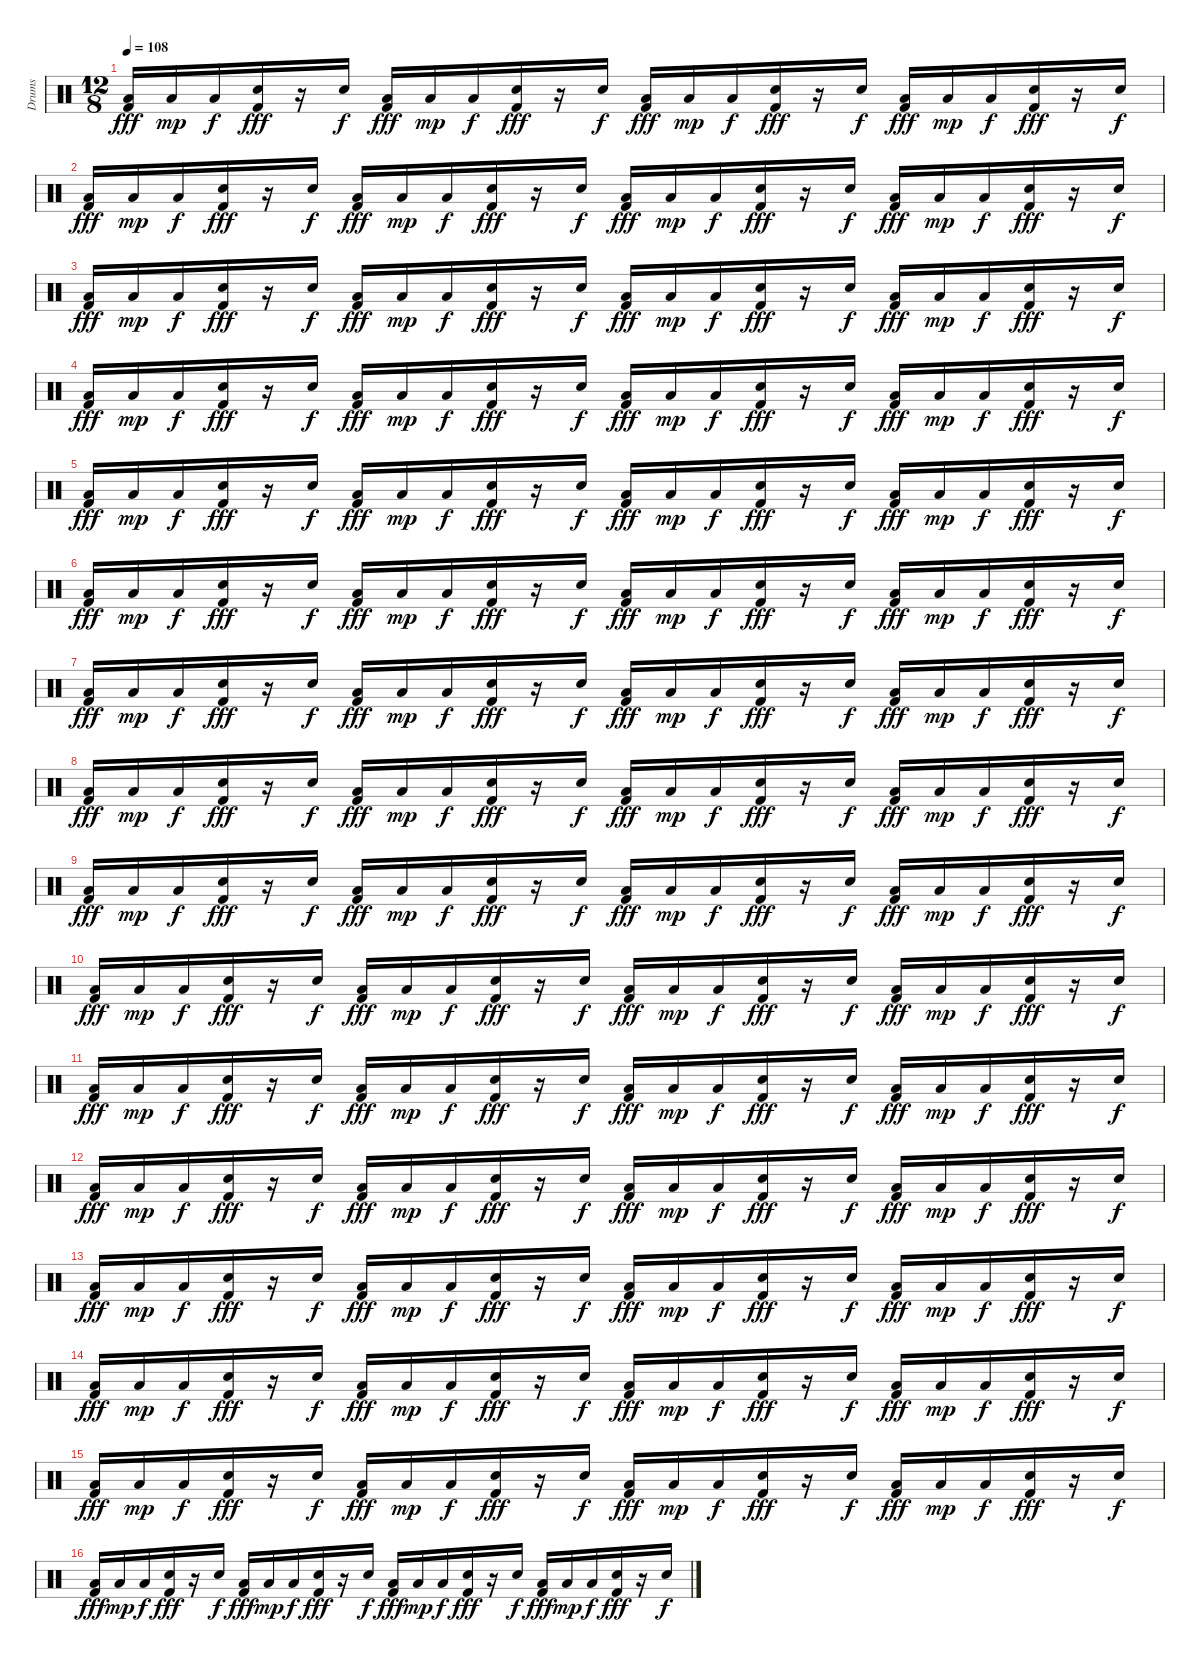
\track ("Drums" "Drums") {instrument percussion}
\staff {score}
\articulation defaults
\ts (12 8)
\tempo 108
\clef neutral
\ks c
("Low Floor Tom (hit)" "Kick (hit) 2").16{dy fff} "Low Floor Tom (hit)".16{dy mp} "Low Floor Tom (hit)".16{dy f} ("Snare (hit) 2" "Kick (hit) 2").16{dy fff} r.16 "Snare (hit) 2".16{dy f} ("Low Floor Tom (hit)" "Kick (hit) 2").16{dy fff} "Low Floor Tom (hit)".16{dy mp} "Low Floor Tom (hit)".16{dy f} ("Snare (hit) 2" "Kick (hit) 2").16{dy fff} r.16 "Snare (hit) 2".16{dy f} ("Low Floor Tom (hit)" "Kick (hit) 2").16{dy fff} "Low Floor Tom (hit)".16{dy mp} "Low Floor Tom (hit)".16{dy f} ("Snare (hit) 2" "Kick (hit) 2").16{dy fff} r.16 "Snare (hit) 2".16{dy f} ("Low Floor Tom (hit)" "Kick (hit) 2").16{dy fff} "Low Floor Tom (hit)".16{dy mp} "Low Floor Tom (hit)".16{dy f} ("Snare (hit) 2" "Kick (hit) 2").16{dy fff} r.16 "Snare (hit) 2".16{dy f} |
("Low Floor Tom (hit)" "Kick (hit) 2").16{dy fff} "Low Floor Tom (hit)".16{dy mp} "Low Floor Tom (hit)".16{dy f} ("Snare (hit) 2" "Kick (hit) 2").16{dy fff} r.16 "Snare (hit) 2".16{dy f} ("Low Floor Tom (hit)" "Kick (hit) 2").16{dy fff} "Low Floor Tom (hit)".16{dy mp} "Low Floor Tom (hit)".16{dy f} ("Snare (hit) 2" "Kick (hit) 2").16{dy fff} r.16 "Snare (hit) 2".16{dy f} ("Low Floor Tom (hit)" "Kick (hit) 2").16{dy fff} "Low Floor Tom (hit)".16{dy mp} "Low Floor Tom (hit)".16{dy f} ("Snare (hit) 2" "Kick (hit) 2").16{dy fff} r.16 "Snare (hit) 2".16{dy f} ("Low Floor Tom (hit)" "Kick (hit) 2").16{dy fff} "Low Floor Tom (hit)".16{dy mp} "Low Floor Tom (hit)".16{dy f} ("Snare (hit) 2" "Kick (hit) 2").16{dy fff} r.16 "Snare (hit) 2".16{dy f} |
("Low Floor Tom (hit)" "Kick (hit) 2").16{dy fff} "Low Floor Tom (hit)".16{dy mp} "Low Floor Tom (hit)".16{dy f} ("Snare (hit) 2" "Kick (hit) 2").16{dy fff} r.16 "Snare (hit) 2".16{dy f} ("Low Floor Tom (hit)" "Kick (hit) 2").16{dy fff} "Low Floor Tom (hit)".16{dy mp} "Low Floor Tom (hit)".16{dy f} ("Snare (hit) 2" "Kick (hit) 2").16{dy fff} r.16 "Snare (hit) 2".16{dy f} ("Low Floor Tom (hit)" "Kick (hit) 2").16{dy fff} "Low Floor Tom (hit)".16{dy mp} "Low Floor Tom (hit)".16{dy f} ("Snare (hit) 2" "Kick (hit) 2").16{dy fff} r.16 "Snare (hit) 2".16{dy f} ("Low Floor Tom (hit)" "Kick (hit) 2").16{dy fff} "Low Floor Tom (hit)".16{dy mp} "Low Floor Tom (hit)".16{dy f} ("Snare (hit) 2" "Kick (hit) 2").16{dy fff} r.16 "Snare (hit) 2".16{dy f} |
("Low Floor Tom (hit)" "Kick (hit) 2").16{dy fff} "Low Floor Tom (hit)".16{dy mp} "Low Floor Tom (hit)".16{dy f} ("Snare (hit) 2" "Kick (hit) 2").16{dy fff} r.16 "Snare (hit) 2".16{dy f} ("Low Floor Tom (hit)" "Kick (hit) 2").16{dy fff} "Low Floor Tom (hit)".16{dy mp} "Low Floor Tom (hit)".16{dy f} ("Snare (hit) 2" "Kick (hit) 2").16{dy fff} r.16 "Snare (hit) 2".16{dy f} ("Low Floor Tom (hit)" "Kick (hit) 2").16{dy fff} "Low Floor Tom (hit)".16{dy mp} "Low Floor Tom (hit)".16{dy f} ("Snare (hit) 2" "Kick (hit) 2").16{dy fff} r.16 "Snare (hit) 2".16{dy f} ("Low Floor Tom (hit)" "Kick (hit) 2").16{dy fff} "Low Floor Tom (hit)".16{dy mp} "Low Floor Tom (hit)".16{dy f} ("Snare (hit) 2" "Kick (hit) 2").16{dy fff} r.16 "Snare (hit) 2".16{dy f} |
("Low Floor Tom (hit)" "Kick (hit) 2").16{dy fff} "Low Floor Tom (hit)".16{dy mp} "Low Floor Tom (hit)".16{dy f} ("Snare (hit) 2" "Kick (hit) 2").16{dy fff} r.16 "Snare (hit) 2".16{dy f} ("Low Floor Tom (hit)" "Kick (hit) 2").16{dy fff} "Low Floor Tom (hit)".16{dy mp} "Low Floor Tom (hit)".16{dy f} ("Snare (hit) 2" "Kick (hit) 2").16{dy fff} r.16 "Snare (hit) 2".16{dy f} ("Low Floor Tom (hit)" "Kick (hit) 2").16{dy fff} "Low Floor Tom (hit)".16{dy mp} "Low Floor Tom (hit)".16{dy f} ("Snare (hit) 2" "Kick (hit) 2").16{dy fff} r.16 "Snare (hit) 2".16{dy f} ("Low Floor Tom (hit)" "Kick (hit) 2").16{dy fff} "Low Floor Tom (hit)".16{dy mp} "Low Floor Tom (hit)".16{dy f} ("Snare (hit) 2" "Kick (hit) 2").16{dy fff} r.16 "Snare (hit) 2".16{dy f} |
("Low Floor Tom (hit)" "Kick (hit) 2").16{dy fff} "Low Floor Tom (hit)".16{dy mp} "Low Floor Tom (hit)".16{dy f} ("Snare (hit) 2" "Kick (hit) 2").16{dy fff} r.16 "Snare (hit) 2".16{dy f} ("Low Floor Tom (hit)" "Kick (hit) 2").16{dy fff} "Low Floor Tom (hit)".16{dy mp} "Low Floor Tom (hit)".16{dy f} ("Snare (hit) 2" "Kick (hit) 2").16{dy fff} r.16 "Snare (hit) 2".16{dy f} ("Low Floor Tom (hit)" "Kick (hit) 2").16{dy fff} "Low Floor Tom (hit)".16{dy mp} "Low Floor Tom (hit)".16{dy f} ("Snare (hit) 2" "Kick (hit) 2").16{dy fff} r.16 "Snare (hit) 2".16{dy f} ("Low Floor Tom (hit)" "Kick (hit) 2").16{dy fff} "Low Floor Tom (hit)".16{dy mp} "Low Floor Tom (hit)".16{dy f} ("Snare (hit) 2" "Kick (hit) 2").16{dy fff} r.16 "Snare (hit) 2".16{dy f} |
("Low Floor Tom (hit)" "Kick (hit) 2").16{dy fff} "Low Floor Tom (hit)".16{dy mp} "Low Floor Tom (hit)".16{dy f} ("Snare (hit) 2" "Kick (hit) 2").16{dy fff} r.16 "Snare (hit) 2".16{dy f} ("Low Floor Tom (hit)" "Kick (hit) 2").16{dy fff} "Low Floor Tom (hit)".16{dy mp} "Low Floor Tom (hit)".16{dy f} ("Snare (hit) 2" "Kick (hit) 2").16{dy fff} r.16 "Snare (hit) 2".16{dy f} ("Low Floor Tom (hit)" "Kick (hit) 2").16{dy fff} "Low Floor Tom (hit)".16{dy mp} "Low Floor Tom (hit)".16{dy f} ("Snare (hit) 2" "Kick (hit) 2").16{dy fff} r.16 "Snare (hit) 2".16{dy f} ("Low Floor Tom (hit)" "Kick (hit) 2").16{dy fff} "Low Floor Tom (hit)".16{dy mp} "Low Floor Tom (hit)".16{dy f} ("Snare (hit) 2" "Kick (hit) 2").16{dy fff} r.16 "Snare (hit) 2".16{dy f} |
("Low Floor Tom (hit)" "Kick (hit) 2").16{dy fff} "Low Floor Tom (hit)".16{dy mp} "Low Floor Tom (hit)".16{dy f} ("Snare (hit) 2" "Kick (hit) 2").16{dy fff} r.16 "Snare (hit) 2".16{dy f} ("Low Floor Tom (hit)" "Kick (hit) 2").16{dy fff} "Low Floor Tom (hit)".16{dy mp} "Low Floor Tom (hit)".16{dy f} ("Snare (hit) 2" "Kick (hit) 2").16{dy fff} r.16 "Snare (hit) 2".16{dy f} ("Low Floor Tom (hit)" "Kick (hit) 2").16{dy fff} "Low Floor Tom (hit)".16{dy mp} "Low Floor Tom (hit)".16{dy f} ("Snare (hit) 2" "Kick (hit) 2").16{dy fff} r.16 "Snare (hit) 2".16{dy f} ("Low Floor Tom (hit)" "Kick (hit) 2").16{dy fff} "Low Floor Tom (hit)".16{dy mp} "Low Floor Tom (hit)".16{dy f} ("Snare (hit) 2" "Kick (hit) 2").16{dy fff} r.16 "Snare (hit) 2".16{dy f} |
("Low Floor Tom (hit)" "Kick (hit) 2").16{dy fff} "Low Floor Tom (hit)".16{dy mp} "Low Floor Tom (hit)".16{dy f} ("Snare (hit) 2" "Kick (hit) 2").16{dy fff} r.16 "Snare (hit) 2".16{dy f} ("Low Floor Tom (hit)" "Kick (hit) 2").16{dy fff} "Low Floor Tom (hit)".16{dy mp} "Low Floor Tom (hit)".16{dy f} ("Snare (hit) 2" "Kick (hit) 2").16{dy fff} r.16 "Snare (hit) 2".16{dy f} ("Low Floor Tom (hit)" "Kick (hit) 2").16{dy fff} "Low Floor Tom (hit)".16{dy mp} "Low Floor Tom (hit)".16{dy f} ("Snare (hit) 2" "Kick (hit) 2").16{dy fff} r.16 "Snare (hit) 2".16{dy f} ("Low Floor Tom (hit)" "Kick (hit) 2").16{dy fff} "Low Floor Tom (hit)".16{dy mp} "Low Floor Tom (hit)".16{dy f} ("Snare (hit) 2" "Kick (hit) 2").16{dy fff} r.16 "Snare (hit) 2".16{dy f} |
("Low Floor Tom (hit)" "Kick (hit) 2").16{dy fff} "Low Floor Tom (hit)".16{dy mp} "Low Floor Tom (hit)".16{dy f} ("Snare (hit) 2" "Kick (hit) 2").16{dy fff} r.16 "Snare (hit) 2".16{dy f} ("Low Floor Tom (hit)" "Kick (hit) 2").16{dy fff} "Low Floor Tom (hit)".16{dy mp} "Low Floor Tom (hit)".16{dy f} ("Snare (hit) 2" "Kick (hit) 2").16{dy fff} r.16 "Snare (hit) 2".16{dy f} ("Low Floor Tom (hit)" "Kick (hit) 2").16{dy fff} "Low Floor Tom (hit)".16{dy mp} "Low Floor Tom (hit)".16{dy f} ("Snare (hit) 2" "Kick (hit) 2").16{dy fff} r.16 "Snare (hit) 2".16{dy f} ("Low Floor Tom (hit)" "Kick (hit) 2").16{dy fff} "Low Floor Tom (hit)".16{dy mp} "Low Floor Tom (hit)".16{dy f} ("Snare (hit) 2" "Kick (hit) 2").16{dy fff} r.16 "Snare (hit) 2".16{dy f} |
("Low Floor Tom (hit)" "Kick (hit) 2").16{dy fff} "Low Floor Tom (hit)".16{dy mp} "Low Floor Tom (hit)".16{dy f} ("Snare (hit) 2" "Kick (hit) 2").16{dy fff} r.16 "Snare (hit) 2".16{dy f} ("Low Floor Tom (hit)" "Kick (hit) 2").16{dy fff} "Low Floor Tom (hit)".16{dy mp} "Low Floor Tom (hit)".16{dy f} ("Snare (hit) 2" "Kick (hit) 2").16{dy fff} r.16 "Snare (hit) 2".16{dy f} ("Low Floor Tom (hit)" "Kick (hit) 2").16{dy fff} "Low Floor Tom (hit)".16{dy mp} "Low Floor Tom (hit)".16{dy f} ("Snare (hit) 2" "Kick (hit) 2").16{dy fff} r.16 "Snare (hit) 2".16{dy f} ("Low Floor Tom (hit)" "Kick (hit) 2").16{dy fff} "Low Floor Tom (hit)".16{dy mp} "Low Floor Tom (hit)".16{dy f} ("Snare (hit) 2" "Kick (hit) 2").16{dy fff} r.16 "Snare (hit) 2".16{dy f} |
("Low Floor Tom (hit)" "Kick (hit) 2").16{dy fff} "Low Floor Tom (hit)".16{dy mp} "Low Floor Tom (hit)".16{dy f} ("Snare (hit) 2" "Kick (hit) 2").16{dy fff} r.16 "Snare (hit) 2".16{dy f} ("Low Floor Tom (hit)" "Kick (hit) 2").16{dy fff} "Low Floor Tom (hit)".16{dy mp} "Low Floor Tom (hit)".16{dy f} ("Snare (hit) 2" "Kick (hit) 2").16{dy fff} r.16 "Snare (hit) 2".16{dy f} ("Low Floor Tom (hit)" "Kick (hit) 2").16{dy fff} "Low Floor Tom (hit)".16{dy mp} "Low Floor Tom (hit)".16{dy f} ("Snare (hit) 2" "Kick (hit) 2").16{dy fff} r.16 "Snare (hit) 2".16{dy f} ("Low Floor Tom (hit)" "Kick (hit) 2").16{dy fff} "Low Floor Tom (hit)".16{dy mp} "Low Floor Tom (hit)".16{dy f} ("Snare (hit) 2" "Kick (hit) 2").16{dy fff} r.16 "Snare (hit) 2".16{dy f} |
("Low Floor Tom (hit)" "Kick (hit) 2").16{dy fff} "Low Floor Tom (hit)".16{dy mp} "Low Floor Tom (hit)".16{dy f} ("Snare (hit) 2" "Kick (hit) 2").16{dy fff} r.16 "Snare (hit) 2".16{dy f} ("Low Floor Tom (hit)" "Kick (hit) 2").16{dy fff} "Low Floor Tom (hit)".16{dy mp} "Low Floor Tom (hit)".16{dy f} ("Snare (hit) 2" "Kick (hit) 2").16{dy fff} r.16 "Snare (hit) 2".16{dy f} ("Low Floor Tom (hit)" "Kick (hit) 2").16{dy fff} "Low Floor Tom (hit)".16{dy mp} "Low Floor Tom (hit)".16{dy f} ("Snare (hit) 2" "Kick (hit) 2").16{dy fff} r.16 "Snare (hit) 2".16{dy f} ("Low Floor Tom (hit)" "Kick (hit) 2").16{dy fff} "Low Floor Tom (hit)".16{dy mp} "Low Floor Tom (hit)".16{dy f} ("Snare (hit) 2" "Kick (hit) 2").16{dy fff} r.16 "Snare (hit) 2".16{dy f} |
("Low Floor Tom (hit)" "Kick (hit) 2").16{dy fff} "Low Floor Tom (hit)".16{dy mp} "Low Floor Tom (hit)".16{dy f} ("Snare (hit) 2" "Kick (hit) 2").16{dy fff} r.16 "Snare (hit) 2".16{dy f} ("Low Floor Tom (hit)" "Kick (hit) 2").16{dy fff} "Low Floor Tom (hit)".16{dy mp} "Low Floor Tom (hit)".16{dy f} ("Snare (hit) 2" "Kick (hit) 2").16{dy fff} r.16 "Snare (hit) 2".16{dy f} ("Low Floor Tom (hit)" "Kick (hit) 2").16{dy fff} "Low Floor Tom (hit)".16{dy mp} "Low Floor Tom (hit)".16{dy f} ("Snare (hit) 2" "Kick (hit) 2").16{dy fff} r.16 "Snare (hit) 2".16{dy f} ("Low Floor Tom (hit)" "Kick (hit) 2").16{dy fff} "Low Floor Tom (hit)".16{dy mp} "Low Floor Tom (hit)".16{dy f} ("Snare (hit) 2" "Kick (hit) 2").16{dy fff} r.16 "Snare (hit) 2".16{dy f} |
("Low Floor Tom (hit)" "Kick (hit) 2").16{dy fff} "Low Floor Tom (hit)".16{dy mp} "Low Floor Tom (hit)".16{dy f} ("Snare (hit) 2" "Kick (hit) 2").16{dy fff} r.16 "Snare (hit) 2".16{dy f} ("Low Floor Tom (hit)" "Kick (hit) 2").16{dy fff} "Low Floor Tom (hit)".16{dy mp} "Low Floor Tom (hit)".16{dy f} ("Snare (hit) 2" "Kick (hit) 2").16{dy fff} r.16 "Snare (hit) 2".16{dy f} ("Low Floor Tom (hit)" "Kick (hit) 2").16{dy fff} "Low Floor Tom (hit)".16{dy mp} "Low Floor Tom (hit)".16{dy f} ("Snare (hit) 2" "Kick (hit) 2").16{dy fff} r.16 "Snare (hit) 2".16{dy f} ("Low Floor Tom (hit)" "Kick (hit) 2").16{dy fff} "Low Floor Tom (hit)".16{dy mp} "Low Floor Tom (hit)".16{dy f} ("Snare (hit) 2" "Kick (hit) 2").16{dy fff} r.16 "Snare (hit) 2".16{dy f} |
("Low Floor Tom (hit)" "Kick (hit) 2").16{dy fff} "Low Floor Tom (hit)".16{dy mp} "Low Floor Tom (hit)".16{dy f} ("Snare (hit) 2" "Kick (hit) 2").16{dy fff} r.16 "Snare (hit) 2".16{dy f} ("Low Floor Tom (hit)" "Kick (hit) 2").16{dy fff} "Low Floor Tom (hit)".16{dy mp} "Low Floor Tom (hit)".16{dy f} ("Snare (hit) 2" "Kick (hit) 2").16{dy fff} r.16 "Snare (hit) 2".16{dy f} ("Low Floor Tom (hit)" "Kick (hit) 2").16{dy fff} "Low Floor Tom (hit)".16{dy mp} "Low Floor Tom (hit)".16{dy f} ("Snare (hit) 2" "Kick (hit) 2").16{dy fff} r.16 "Snare (hit) 2".16{dy f} ("Low Floor Tom (hit)" "Kick (hit) 2").16{dy fff} "Low Floor Tom (hit)".16{dy mp} "Low Floor Tom (hit)".16{dy f} ("Snare (hit) 2" "Kick (hit) 2").16{dy fff} r.16 "Snare (hit) 2".16{dy f}
